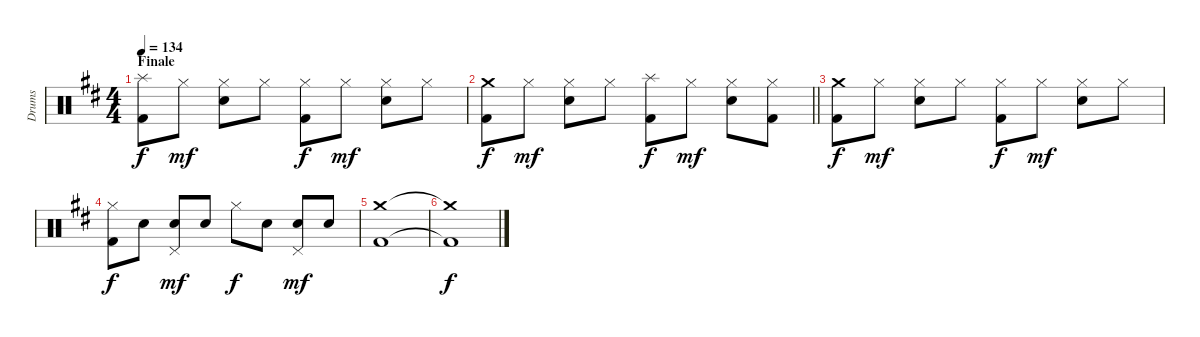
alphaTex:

\track ("Drums" "Drums") {instrument percussion}
\staff {score}
\articulation defaults
\ts (4 4)
\section ("" "Finale")
\tempo 134
\clef neutral
\ks d
("Splash (hit)" "Kick (hit) 2").8{dy f} "Hi-Hat (closed)".8{dy mf} ("Hi-Hat (closed)" "Snare (hit) 2").8 "Hi-Hat (closed)".8 ("Hi-Hat (closed)" "Kick (hit) 2").8{dy f} "Hi-Hat (closed)".8{dy mf} ("Hi-Hat (closed)" "Snare (hit) 2").8 "Hi-Hat (closed)".8 |
\barLineRight lightlight
("Crash medium (hit)" "Kick (hit) 2").8{dy f} "Hi-Hat (closed)".8{dy mf} ("Hi-Hat (closed)" "Snare (hit) 2").8 "Hi-Hat (closed)".8 ("Splash (hit)" "Kick (hit) 2").8{dy f} "Hi-Hat (closed)".8{dy mf} ("Hi-Hat (closed)" "Snare (hit) 2").8 ("Hi-Hat (closed)" "Kick (hit) 2").8 |
("Crash medium (hit)" "Kick (hit) 2").8{dy f} "Hi-Hat (closed)".8{dy mf} ("Hi-Hat (closed)" "Snare (hit) 2").8 "Hi-Hat (closed)".8 ("Hi-Hat (closed)" "Kick (hit) 2").8{dy f} "Hi-Hat (closed)".8{dy mf} ("Hi-Hat (closed)" "Snare (hit) 2").8 "Hi-Hat (closed)".8 |
("Hi-Hat (closed)" "Kick (hit) 2").8{dy f} "Snare (hit) 2".8 ("Pedal Hi-Hat (hit)" "Snare (hit) 2").8{dy mf} "Snare (hit) 2".8 "Hi-Hat (closed)".8{dy f} "Snare (hit) 2".8 ("Pedal Hi-Hat (hit)" "Snare (hit) 2").8{dy mf} "Snare (hit) 2".8 |
("Crash medium (hit)" "Kick (hit) 2").1 |
("Crash medium (hit)"{t} "Kick (hit) 2"{t}).1{dy f}
